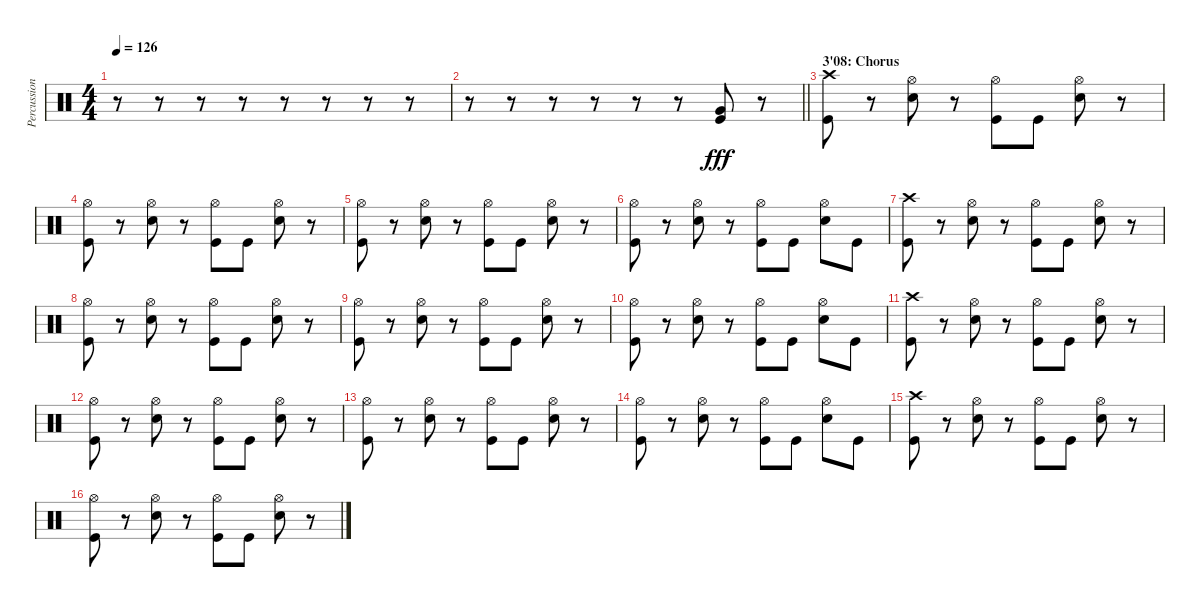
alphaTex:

\track ("Percussions" "Percussion") {instrument percussion}
\staff {score}
\articulation defaults
\ts (4 4)
\tempo 126
\clef neutral
\ks c
r.8{dy fff} r.8 r.8 r.8 r.8 r.8 r.8 r.8 |
\barLineRight lightlight
r.8 r.8 r.8 r.8 r.8 r.8 ("Very Low Tom (hit)" "Kick (hit)").8 r.8 |
\section ("" "3'08: Chorus")
("Crash high (hit)" "Kick (hit)").8 r.8 ("Hi-Hat (open)" "Electric Snare (hit)").8 r.8 ("Hi-Hat (open)" "Kick (hit)").8 "Kick (hit)".8 ("Hi-Hat (open)" "Electric Snare (hit)").8 r.8 |
("Hi-Hat (open)" "Kick (hit)").8 r.8 ("Hi-Hat (open)" "Electric Snare (hit)").8 r.8 ("Hi-Hat (open)" "Kick (hit)").8 "Kick (hit)".8 ("Hi-Hat (open)" "Electric Snare (hit)").8 r.8 |
("Hi-Hat (open)" "Kick (hit)").8 r.8 ("Hi-Hat (open)" "Electric Snare (hit)").8 r.8 ("Hi-Hat (open)" "Kick (hit)").8 "Kick (hit)".8 ("Hi-Hat (open)" "Electric Snare (hit)").8 r.8 |
("Hi-Hat (open)" "Kick (hit)").8 r.8 ("Hi-Hat (open)" "Electric Snare (hit)").8 r.8 ("Hi-Hat (open)" "Kick (hit)").8 "Kick (hit)".8 ("Hi-Hat (open)" "Electric Snare (hit)").8 "Kick (hit)".8 |
("Crash high (hit)" "Kick (hit)").8 r.8 ("Hi-Hat (open)" "Electric Snare (hit)").8 r.8 ("Hi-Hat (open)" "Kick (hit)").8 "Kick (hit)".8 ("Hi-Hat (open)" "Electric Snare (hit)").8 r.8 |
("Hi-Hat (open)" "Kick (hit)").8 r.8 ("Hi-Hat (open)" "Electric Snare (hit)").8 r.8 ("Hi-Hat (open)" "Kick (hit)").8 "Kick (hit)".8 ("Hi-Hat (open)" "Electric Snare (hit)").8 r.8 |
("Hi-Hat (open)" "Kick (hit)").8 r.8 ("Hi-Hat (open)" "Electric Snare (hit)").8 r.8 ("Hi-Hat (open)" "Kick (hit)").8 "Kick (hit)".8 ("Hi-Hat (open)" "Electric Snare (hit)").8 r.8 |
("Hi-Hat (open)" "Kick (hit)").8 r.8 ("Hi-Hat (open)" "Electric Snare (hit)").8 r.8 ("Hi-Hat (open)" "Kick (hit)").8 "Kick (hit)".8 ("Hi-Hat (open)" "Electric Snare (hit)").8 "Kick (hit)".8 |
("Crash high (hit)" "Kick (hit)").8 r.8 ("Hi-Hat (open)" "Electric Snare (hit)").8 r.8 ("Hi-Hat (open)" "Kick (hit)").8 "Kick (hit)".8 ("Hi-Hat (open)" "Electric Snare (hit)").8 r.8 |
("Hi-Hat (open)" "Kick (hit)").8 r.8 ("Hi-Hat (open)" "Electric Snare (hit)").8 r.8 ("Hi-Hat (open)" "Kick (hit)").8 "Kick (hit)".8 ("Hi-Hat (open)" "Electric Snare (hit)").8 r.8 |
("Hi-Hat (open)" "Kick (hit)").8 r.8 ("Hi-Hat (open)" "Electric Snare (hit)").8 r.8 ("Hi-Hat (open)" "Kick (hit)").8 "Kick (hit)".8 ("Hi-Hat (open)" "Electric Snare (hit)").8 r.8 |
("Hi-Hat (open)" "Kick (hit)").8 r.8 ("Hi-Hat (open)" "Electric Snare (hit)").8 r.8 ("Hi-Hat (open)" "Kick (hit)").8 "Kick (hit)".8 ("Hi-Hat (open)" "Electric Snare (hit)").8 "Kick (hit)".8 |
("Crash high (hit)" "Kick (hit)").8 r.8 ("Hi-Hat (open)" "Electric Snare (hit)").8 r.8 ("Hi-Hat (open)" "Kick (hit)").8 "Kick (hit)".8 ("Hi-Hat (open)" "Electric Snare (hit)").8 r.8 |
("Hi-Hat (open)" "Kick (hit)").8 r.8 ("Hi-Hat (open)" "Electric Snare (hit)").8 r.8 ("Hi-Hat (open)" "Kick (hit)").8 "Kick (hit)".8 ("Hi-Hat (open)" "Electric Snare (hit)").8 r.8
